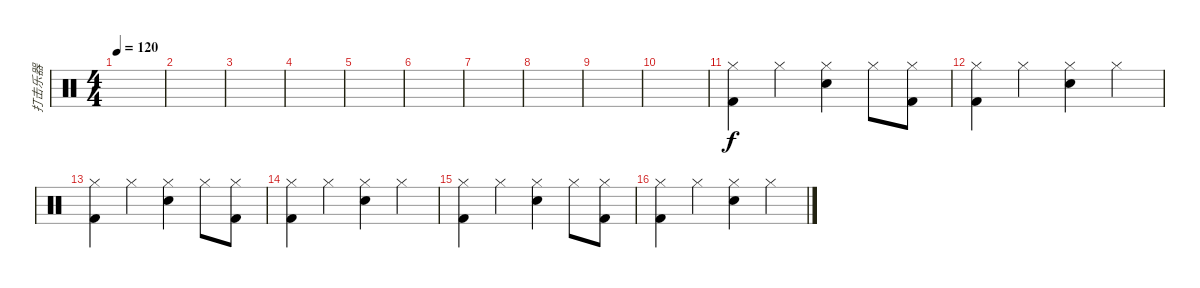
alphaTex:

\track ("打击乐器" "打击乐器") {instrument percussion}
\staff {score}
\articulation defaults
\ts (4 4)
\tempo 120
\clef neutral
\ks c
|
|
|
|
|
|
|
|
|
|
("Hi-Hat (closed)" "Kick (hit) 2").4 "Hi-Hat (closed)".4 ("Hi-Hat (closed)" "Electric Snare (hit)").4 "Hi-Hat (closed)".8 ("Hi-Hat (closed)" "Kick (hit) 2").8 |
("Hi-Hat (closed)" "Kick (hit) 2").4 "Hi-Hat (closed)".4 ("Hi-Hat (closed)" "Electric Snare (hit)").4 "Hi-Hat (closed)".4 |
("Hi-Hat (closed)" "Kick (hit) 2").4 "Hi-Hat (closed)".4 ("Hi-Hat (closed)" "Electric Snare (hit)").4 "Hi-Hat (closed)".8 ("Hi-Hat (closed)" "Kick (hit) 2").8 |
("Hi-Hat (closed)" "Kick (hit) 2").4 "Hi-Hat (closed)".4 ("Hi-Hat (closed)" "Electric Snare (hit)").4 "Hi-Hat (closed)".4 |
("Hi-Hat (closed)" "Kick (hit) 2").4 "Hi-Hat (closed)".4 ("Hi-Hat (closed)" "Electric Snare (hit)").4 "Hi-Hat (closed)".8 ("Hi-Hat (closed)" "Kick (hit) 2").8 |
("Hi-Hat (closed)" "Kick (hit) 2").4 "Hi-Hat (closed)".4 ("Hi-Hat (closed)" "Electric Snare (hit)").4 "Hi-Hat (closed)".4
